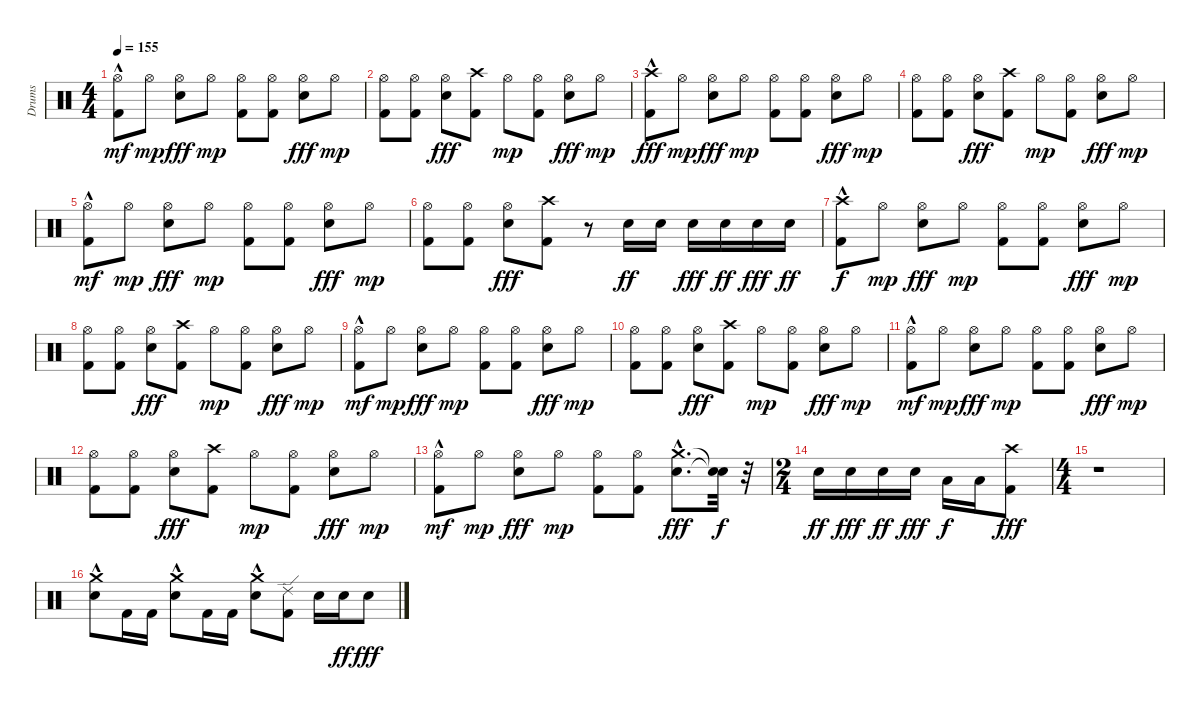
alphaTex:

\track ("Drums" "Drums") {instrument percussion}
\staff {score}
\articulation defaults
\ts (4 4)
\tempo 155
\clef neutral
\ks c
("Kick (hit) 2"{hac} "Hi-Hat (open)").8{dy mf} "Hi-Hat (open)".8{dy mp} ("Snare (hit) 2" "Hi-Hat (open)").8{dy fff} "Hi-Hat (open)".8{dy mp} ("Kick (hit) 2" "Hi-Hat (open)").8 ("Kick (hit) 2" "Hi-Hat (open)").8 ("Snare (hit) 2" "Hi-Hat (open)").8{dy fff} "Hi-Hat (open)".8{dy mp} |
("Kick (hit) 2" "Hi-Hat (open)").8 ("Kick (hit) 2" "Hi-Hat (open)").8 ("Snare (hit) 2" "Hi-Hat (open)").8{dy fff} ("Crash high (hit)" "Kick (hit) 2").8 "Hi-Hat (open)".8{dy mp} ("Kick (hit) 2" "Hi-Hat (open)").8 ("Snare (hit) 2" "Hi-Hat (open)").8{dy fff} "Hi-Hat (open)".8{dy mp} |
("Kick (hit) 2"{hac} "Crash high (hit)").8{dy fff} "Hi-Hat (open)".8{dy mp} ("Snare (hit) 2" "Hi-Hat (open)").8{dy fff} "Hi-Hat (open)".8{dy mp} ("Kick (hit) 2" "Hi-Hat (open)").8 ("Kick (hit) 2" "Hi-Hat (open)").8 ("Snare (hit) 2" "Hi-Hat (open)").8{dy fff} "Hi-Hat (open)".8{dy mp} |
("Kick (hit) 2" "Hi-Hat (open)").8 ("Kick (hit) 2" "Hi-Hat (open)").8 ("Snare (hit) 2" "Hi-Hat (open)").8{dy fff} ("Crash high (hit)" "Kick (hit) 2").8 "Hi-Hat (open)".8{dy mp} ("Kick (hit) 2" "Hi-Hat (open)").8 ("Snare (hit) 2" "Hi-Hat (open)").8{dy fff} "Hi-Hat (open)".8{dy mp} |
("Kick (hit) 2"{hac} "Hi-Hat (open)").8{dy mf} "Hi-Hat (open)".8{dy mp} ("Snare (hit) 2" "Hi-Hat (open)").8{dy fff} "Hi-Hat (open)".8{dy mp} ("Kick (hit) 2" "Hi-Hat (open)").8 ("Kick (hit) 2" "Hi-Hat (open)").8 ("Snare (hit) 2" "Hi-Hat (open)").8{dy fff} "Hi-Hat (open)".8{dy mp} |
("Kick (hit) 2" "Hi-Hat (open)").8 ("Kick (hit) 2" "Hi-Hat (open)").8 ("Snare (hit) 2" "Hi-Hat (open)").8{dy fff} ("Crash high (hit)" "Kick (hit) 2").8 r.8 "Snare (hit) 2".16{dy ff} "Snare (hit) 2".16 "Snare (hit) 2".16{dy fff} "Snare (hit) 2".16{dy ff} "Snare (hit) 2".16{dy fff} "Snare (hit) 2".16{dy ff} |
("Kick (hit) 2"{hac} "Crash high (hit)").8{dy f} "Hi-Hat (open)".8{dy mp} ("Snare (hit) 2" "Hi-Hat (open)").8{dy fff} "Hi-Hat (open)".8{dy mp} ("Kick (hit) 2" "Hi-Hat (open)").8 ("Kick (hit) 2" "Hi-Hat (open)").8 ("Snare (hit) 2" "Hi-Hat (open)").8{dy fff} "Hi-Hat (open)".8{dy mp} |
("Kick (hit) 2" "Hi-Hat (open)").8 ("Kick (hit) 2" "Hi-Hat (open)").8 ("Snare (hit) 2" "Hi-Hat (open)").8{dy fff} ("Crash high (hit)" "Kick (hit) 2").8 "Hi-Hat (open)".8{dy mp} ("Kick (hit) 2" "Hi-Hat (open)").8 ("Snare (hit) 2" "Hi-Hat (open)").8{dy fff} "Hi-Hat (open)".8{dy mp} |
("Kick (hit) 2"{hac} "Hi-Hat (open)").8{dy mf} "Hi-Hat (open)".8{dy mp} ("Snare (hit) 2" "Hi-Hat (open)").8{dy fff} "Hi-Hat (open)".8{dy mp} ("Kick (hit) 2" "Hi-Hat (open)").8 ("Kick (hit) 2" "Hi-Hat (open)").8 ("Snare (hit) 2" "Hi-Hat (open)").8{dy fff} "Hi-Hat (open)".8{dy mp} |
("Kick (hit) 2" "Hi-Hat (open)").8 ("Kick (hit) 2" "Hi-Hat (open)").8 ("Snare (hit) 2" "Hi-Hat (open)").8{dy fff} ("Crash high (hit)" "Kick (hit) 2").8 "Hi-Hat (open)".8{dy mp} ("Kick (hit) 2" "Hi-Hat (open)").8 ("Snare (hit) 2" "Hi-Hat (open)").8{dy fff} "Hi-Hat (open)".8{dy mp} |
("Kick (hit) 2"{hac} "Hi-Hat (open)").8{dy mf} "Hi-Hat (open)".8{dy mp} ("Snare (hit) 2" "Hi-Hat (open)").8{dy fff} "Hi-Hat (open)".8{dy mp} ("Kick (hit) 2" "Hi-Hat (open)").8 ("Kick (hit) 2" "Hi-Hat (open)").8 ("Snare (hit) 2" "Hi-Hat (open)").8{dy fff} "Hi-Hat (open)".8{dy mp} |
("Kick (hit) 2" "Hi-Hat (open)").8 ("Kick (hit) 2" "Hi-Hat (open)").8 ("Snare (hit) 2" "Hi-Hat (open)").8{dy fff} ("Crash high (hit)" "Kick (hit) 2").8 "Hi-Hat (open)".8{dy mp} ("Kick (hit) 2" "Hi-Hat (open)").8 ("Snare (hit) 2" "Hi-Hat (open)").8{dy fff} "Hi-Hat (open)".8{dy mp} |
("Kick (hit) 2"{hac} "Hi-Hat (open)").8{dy mf} "Hi-Hat (open)".8{dy mp} ("Snare (hit) 2" "Hi-Hat (open)").8{dy fff} "Hi-Hat (open)".8{dy mp} ("Kick (hit) 2" "Hi-Hat (open)").8 ("Kick (hit) 2" "Hi-Hat (open)").8 ("Snare (hit) 2"{hac} "Crash medium (hit)"{hac}).8{d dy fff} ("Snare (hit)"{t} "Snare (hit)"{t}).32{dy f} r.32 |
\ts (2 4)
"Snare (hit) 2".16{dy ff} "Snare (hit) 2".16{dy fff} "Snare (hit) 2".16{dy ff} "Snare (hit) 2".16{dy fff} "Low Tom (hit)".16{dy f} "Low Tom (hit)".16 ("Kick (hit) 2" "Crash high (hit)").8{dy fff} |
\ts (4 4)
r.1 |
("Snare (hit) 2"{hac} "Crash medium (hit)"{hac}).8 "Kick (hit) 2".16 "Kick (hit) 2".16 ("Snare (hit) 2"{hac} "Crash medium (hit)"{hac}).8 "Kick (hit) 2".16 "Kick (hit) 2".16 ("Snare (hit) 2"{hac} "Crash medium (hit)"{hac}).8 ("Kick (hit) 2" "Ride (edge) 2").8 "Snare (hit) 2".16 "Snare (hit) 2".16{dy ff} "Snare (hit) 2".8{dy fff}
